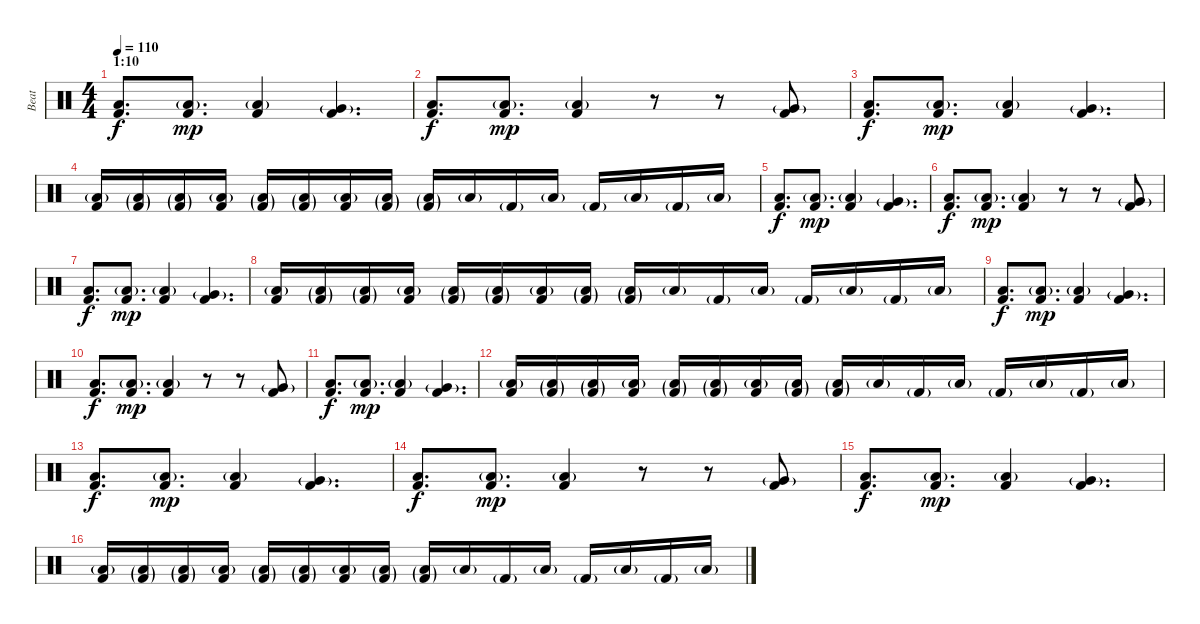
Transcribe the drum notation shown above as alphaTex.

\track ("Beat" "Beat") {instrument percussion}
\staff {score}
\articulation defaults
\ts (4 4)
\section ("" "1:10")
\tempo 110
\clef neutral
\ks c
("Low Floor Tom (hit)" "Kick (hit) 2").8{d dy f} ("Low Floor Tom (hit)"{g} "Kick (hit) 2").8{d dy mp} ("Low Floor Tom (hit)"{g} "Kick (hit) 2").4 ("Very Low Tom (hit)"{g} "Kick (hit) 2").4{d} |
("Low Floor Tom (hit)" "Kick (hit) 2").8{d dy f} ("Low Floor Tom (hit)"{g} "Kick (hit) 2").8{d dy mp} ("Low Floor Tom (hit)"{g} "Kick (hit) 2").4 r.8 r.8 ("Very Low Tom (hit)"{g} "Kick (hit) 2").8 |
("Low Floor Tom (hit)" "Kick (hit) 2").8{d dy f} ("Low Floor Tom (hit)"{g} "Kick (hit) 2").8{d dy mp} ("Low Floor Tom (hit)"{g} "Kick (hit) 2").4 ("Very Low Tom (hit)"{g} "Kick (hit) 2").4{d} |
("Low Floor Tom (hit)"{g} "Kick (hit) 2").16 ("Low Floor Tom (hit)"{g} "Kick (hit) 2"{g}).16 ("Low Floor Tom (hit)"{g} "Kick (hit) 2"{g}).16 ("Low Floor Tom (hit)"{g} "Kick (hit) 2").16 ("Low Floor Tom (hit)"{g} "Kick (hit) 2"{g}).16 ("Low Floor Tom (hit)"{g} "Kick (hit) 2"{g}).16 ("Low Floor Tom (hit)"{g} "Kick (hit) 2").16 ("Low Floor Tom (hit)"{g} "Kick (hit) 2"{g}).16 ("Low Floor Tom (hit)"{g} "Kick (hit) 2"{g}).16 "Low Floor Tom (hit)"{g}.16 "Kick (hit) 2"{g}.16 "Low Floor Tom (hit)"{g}.16 "Kick (hit) 2"{g}.16 "Low Floor Tom (hit)"{g}.16 "Kick (hit) 2"{g}.16 "Low Floor Tom (hit)"{g}.16 |
("Low Floor Tom (hit)" "Kick (hit) 2").8{d dy f} ("Low Floor Tom (hit)"{g} "Kick (hit) 2").8{d dy mp} ("Low Floor Tom (hit)"{g} "Kick (hit) 2").4 ("Very Low Tom (hit)"{g} "Kick (hit) 2").4{d} |
("Low Floor Tom (hit)" "Kick (hit) 2").8{d dy f} ("Low Floor Tom (hit)"{g} "Kick (hit) 2").8{d dy mp} ("Low Floor Tom (hit)"{g} "Kick (hit) 2").4 r.8 r.8 ("Very Low Tom (hit)"{g} "Kick (hit) 2").8 |
("Low Floor Tom (hit)" "Kick (hit) 2").8{d dy f} ("Low Floor Tom (hit)"{g} "Kick (hit) 2").8{d dy mp} ("Low Floor Tom (hit)"{g} "Kick (hit) 2").4 ("Very Low Tom (hit)"{g} "Kick (hit) 2").4{d} |
("Low Floor Tom (hit)"{g} "Kick (hit) 2").16 ("Low Floor Tom (hit)"{g} "Kick (hit) 2"{g}).16 ("Low Floor Tom (hit)"{g} "Kick (hit) 2"{g}).16 ("Low Floor Tom (hit)"{g} "Kick (hit) 2").16 ("Low Floor Tom (hit)"{g} "Kick (hit) 2"{g}).16 ("Low Floor Tom (hit)"{g} "Kick (hit) 2"{g}).16 ("Low Floor Tom (hit)"{g} "Kick (hit) 2").16 ("Low Floor Tom (hit)"{g} "Kick (hit) 2"{g}).16 ("Low Floor Tom (hit)"{g} "Kick (hit) 2"{g}).16 "Low Floor Tom (hit)"{g}.16 "Kick (hit) 2"{g}.16 "Low Floor Tom (hit)"{g}.16 "Kick (hit) 2"{g}.16 "Low Floor Tom (hit)"{g}.16 "Kick (hit) 2"{g}.16 "Low Floor Tom (hit)"{g}.16 |
("Low Floor Tom (hit)" "Kick (hit) 2").8{d dy f} ("Low Floor Tom (hit)"{g} "Kick (hit) 2").8{d dy mp} ("Low Floor Tom (hit)"{g} "Kick (hit) 2").4 ("Very Low Tom (hit)"{g} "Kick (hit) 2").4{d} |
("Low Floor Tom (hit)" "Kick (hit) 2").8{d dy f} ("Low Floor Tom (hit)"{g} "Kick (hit) 2").8{d dy mp} ("Low Floor Tom (hit)"{g} "Kick (hit) 2").4 r.8 r.8 ("Very Low Tom (hit)"{g} "Kick (hit) 2").8 |
("Low Floor Tom (hit)" "Kick (hit) 2").8{d dy f} ("Low Floor Tom (hit)"{g} "Kick (hit) 2").8{d dy mp} ("Low Floor Tom (hit)"{g} "Kick (hit) 2").4 ("Very Low Tom (hit)"{g} "Kick (hit) 2").4{d} |
("Low Floor Tom (hit)"{g} "Kick (hit) 2").16 ("Low Floor Tom (hit)"{g} "Kick (hit) 2"{g}).16 ("Low Floor Tom (hit)"{g} "Kick (hit) 2"{g}).16 ("Low Floor Tom (hit)"{g} "Kick (hit) 2").16 ("Low Floor Tom (hit)"{g} "Kick (hit) 2"{g}).16 ("Low Floor Tom (hit)"{g} "Kick (hit) 2"{g}).16 ("Low Floor Tom (hit)"{g} "Kick (hit) 2").16 ("Low Floor Tom (hit)"{g} "Kick (hit) 2"{g}).16 ("Low Floor Tom (hit)"{g} "Kick (hit) 2"{g}).16 "Low Floor Tom (hit)"{g}.16 "Kick (hit) 2"{g}.16 "Low Floor Tom (hit)"{g}.16 "Kick (hit) 2"{g}.16 "Low Floor Tom (hit)"{g}.16 "Kick (hit) 2"{g}.16 "Low Floor Tom (hit)"{g}.16 |
("Low Floor Tom (hit)" "Kick (hit) 2").8{d dy f} ("Low Floor Tom (hit)"{g} "Kick (hit) 2").8{d dy mp} ("Low Floor Tom (hit)"{g} "Kick (hit) 2").4 ("Very Low Tom (hit)"{g} "Kick (hit) 2").4{d} |
("Low Floor Tom (hit)" "Kick (hit) 2").8{d dy f} ("Low Floor Tom (hit)"{g} "Kick (hit) 2").8{d dy mp} ("Low Floor Tom (hit)"{g} "Kick (hit) 2").4 r.8 r.8 ("Very Low Tom (hit)"{g} "Kick (hit) 2").8 |
("Low Floor Tom (hit)" "Kick (hit) 2").8{d dy f} ("Low Floor Tom (hit)"{g} "Kick (hit) 2").8{d dy mp} ("Low Floor Tom (hit)"{g} "Kick (hit) 2").4 ("Very Low Tom (hit)"{g} "Kick (hit) 2").4{d} |
("Low Floor Tom (hit)"{g} "Kick (hit) 2").16 ("Low Floor Tom (hit)"{g} "Kick (hit) 2"{g}).16 ("Low Floor Tom (hit)"{g} "Kick (hit) 2"{g}).16 ("Low Floor Tom (hit)"{g} "Kick (hit) 2").16 ("Low Floor Tom (hit)"{g} "Kick (hit) 2"{g}).16 ("Low Floor Tom (hit)"{g} "Kick (hit) 2"{g}).16 ("Low Floor Tom (hit)"{g} "Kick (hit) 2").16 ("Low Floor Tom (hit)"{g} "Kick (hit) 2"{g}).16 ("Low Floor Tom (hit)"{g} "Kick (hit) 2"{g}).16 "Low Floor Tom (hit)"{g}.16 "Kick (hit) 2"{g}.16 "Low Floor Tom (hit)"{g}.16 "Kick (hit) 2"{g}.16 "Low Floor Tom (hit)"{g}.16 "Kick (hit) 2"{g}.16 "Low Floor Tom (hit)"{g}.16
